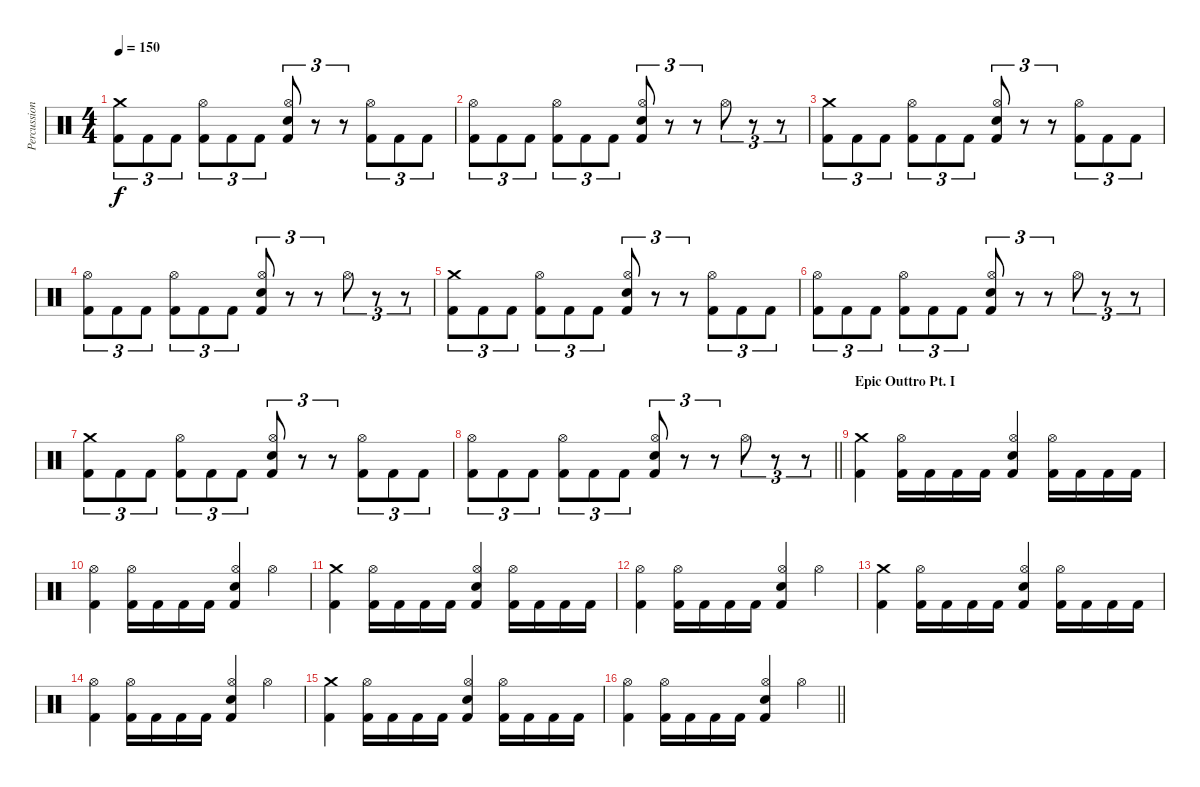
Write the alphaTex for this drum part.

\track ("Percussion" "Percussion") {instrument percussion}
\staff {score}
\articulation defaults
\ts (4 4)
\tempo 150
\clef neutral
\ks c
("Crash medium (hit)" "Kick (hit) 2").8{tu (3 2) dy f} "Kick (hit) 2".8{tu (3 2)} "Kick (hit) 2".8{tu (3 2)} ("Hi-Hat (open)" "Kick (hit) 2").8{tu (3 2)} "Kick (hit) 2".8{tu (3 2)} "Kick (hit) 2".8{tu (3 2)} ("Hi-Hat (open)" "Electric Snare (hit)" "Kick (hit) 2").8{tu (3 2)} r.8{tu (3 2)} r.8{tu (3 2)} ("Hi-Hat (open)" "Kick (hit) 2").8{tu (3 2)} "Kick (hit) 2".8{tu (3 2)} "Kick (hit) 2".8{tu (3 2)} |
("Hi-Hat (open)" "Kick (hit) 2").8{tu (3 2)} "Kick (hit) 2".8{tu (3 2)} "Kick (hit) 2".8{tu (3 2)} ("Hi-Hat (open)" "Kick (hit) 2").8{tu (3 2)} "Kick (hit) 2".8{tu (3 2)} "Kick (hit) 2".8{tu (3 2)} ("Hi-Hat (open)" "Electric Snare (hit)" "Kick (hit) 2").8{tu (3 2)} r.8{tu (3 2)} r.8{tu (3 2)} "Hi-Hat (open)".8{tu (3 2)} r.8{tu (3 2)} r.8{tu (3 2)} |
("Crash medium (hit)" "Kick (hit) 2").8{tu (3 2)} "Kick (hit) 2".8{tu (3 2)} "Kick (hit) 2".8{tu (3 2)} ("Hi-Hat (open)" "Kick (hit) 2").8{tu (3 2)} "Kick (hit) 2".8{tu (3 2)} "Kick (hit) 2".8{tu (3 2)} ("Hi-Hat (open)" "Electric Snare (hit)" "Kick (hit) 2").8{tu (3 2)} r.8{tu (3 2)} r.8{tu (3 2)} ("Hi-Hat (open)" "Kick (hit) 2").8{tu (3 2)} "Kick (hit) 2".8{tu (3 2)} "Kick (hit) 2".8{tu (3 2)} |
("Hi-Hat (open)" "Kick (hit) 2").8{tu (3 2)} "Kick (hit) 2".8{tu (3 2)} "Kick (hit) 2".8{tu (3 2)} ("Hi-Hat (open)" "Kick (hit) 2").8{tu (3 2)} "Kick (hit) 2".8{tu (3 2)} "Kick (hit) 2".8{tu (3 2)} ("Hi-Hat (open)" "Electric Snare (hit)" "Kick (hit) 2").8{tu (3 2)} r.8{tu (3 2)} r.8{tu (3 2)} "Hi-Hat (open)".8{tu (3 2)} r.8{tu (3 2)} r.8{tu (3 2)} |
("Crash medium (hit)" "Kick (hit) 2").8{tu (3 2)} "Kick (hit) 2".8{tu (3 2)} "Kick (hit) 2".8{tu (3 2)} ("Hi-Hat (open)" "Kick (hit) 2").8{tu (3 2)} "Kick (hit) 2".8{tu (3 2)} "Kick (hit) 2".8{tu (3 2)} ("Hi-Hat (open)" "Electric Snare (hit)" "Kick (hit) 2").8{tu (3 2)} r.8{tu (3 2)} r.8{tu (3 2)} ("Hi-Hat (open)" "Kick (hit) 2").8{tu (3 2)} "Kick (hit) 2".8{tu (3 2)} "Kick (hit) 2".8{tu (3 2)} |
("Hi-Hat (open)" "Kick (hit) 2").8{tu (3 2)} "Kick (hit) 2".8{tu (3 2)} "Kick (hit) 2".8{tu (3 2)} ("Hi-Hat (open)" "Kick (hit) 2").8{tu (3 2)} "Kick (hit) 2".8{tu (3 2)} "Kick (hit) 2".8{tu (3 2)} ("Hi-Hat (open)" "Electric Snare (hit)" "Kick (hit) 2").8{tu (3 2)} r.8{tu (3 2)} r.8{tu (3 2)} "Hi-Hat (open)".8{tu (3 2)} r.8{tu (3 2)} r.8{tu (3 2)} |
("Crash medium (hit)" "Kick (hit) 2").8{tu (3 2)} "Kick (hit) 2".8{tu (3 2)} "Kick (hit) 2".8{tu (3 2)} ("Hi-Hat (open)" "Kick (hit) 2").8{tu (3 2)} "Kick (hit) 2".8{tu (3 2)} "Kick (hit) 2".8{tu (3 2)} ("Hi-Hat (open)" "Electric Snare (hit)" "Kick (hit) 2").8{tu (3 2)} r.8{tu (3 2)} r.8{tu (3 2)} ("Hi-Hat (open)" "Kick (hit) 2").8{tu (3 2)} "Kick (hit) 2".8{tu (3 2)} "Kick (hit) 2".8{tu (3 2)} |
\barLineRight lightlight
("Hi-Hat (open)" "Kick (hit) 2").8{tu (3 2)} "Kick (hit) 2".8{tu (3 2)} "Kick (hit) 2".8{tu (3 2)} ("Hi-Hat (open)" "Kick (hit) 2").8{tu (3 2)} "Kick (hit) 2".8{tu (3 2)} "Kick (hit) 2".8{tu (3 2)} ("Hi-Hat (open)" "Electric Snare (hit)" "Kick (hit) 2").8{tu (3 2)} r.8{tu (3 2)} r.8{tu (3 2)} "Hi-Hat (open)".8{tu (3 2)} r.8{tu (3 2)} r.8{tu (3 2)} |
\section ("" "Epic Outtro Pt. I")
("Crash medium (hit)" "Kick (hit) 2").4 ("Hi-Hat (open)" "Kick (hit) 2").16 "Kick (hit) 2".16 "Kick (hit) 2".16 "Kick (hit) 2".16 ("Hi-Hat (open)" "Electric Snare (hit)" "Kick (hit) 2").4 ("Hi-Hat (open)" "Kick (hit) 2").16 "Kick (hit) 2".16 "Kick (hit) 2".16 "Kick (hit) 2".16 |
("Hi-Hat (open)" "Kick (hit) 2").4 ("Hi-Hat (open)" "Kick (hit) 2").16 "Kick (hit) 2".16 "Kick (hit) 2".16 "Kick (hit) 2".16 ("Hi-Hat (open)" "Electric Snare (hit)" "Kick (hit) 2").4 "Hi-Hat (open)".4 |
("Crash medium (hit)" "Kick (hit) 2").4 ("Hi-Hat (open)" "Kick (hit) 2").16 "Kick (hit) 2".16 "Kick (hit) 2".16 "Kick (hit) 2".16 ("Hi-Hat (open)" "Electric Snare (hit)" "Kick (hit) 2").4 ("Hi-Hat (open)" "Kick (hit) 2").16 "Kick (hit) 2".16 "Kick (hit) 2".16 "Kick (hit) 2".16 |
("Hi-Hat (open)" "Kick (hit) 2").4 ("Hi-Hat (open)" "Kick (hit) 2").16 "Kick (hit) 2".16 "Kick (hit) 2".16 "Kick (hit) 2".16 ("Hi-Hat (open)" "Electric Snare (hit)" "Kick (hit) 2").4 "Hi-Hat (open)".4 |
("Crash medium (hit)" "Kick (hit) 2").4 ("Hi-Hat (open)" "Kick (hit) 2").16 "Kick (hit) 2".16 "Kick (hit) 2".16 "Kick (hit) 2".16 ("Hi-Hat (open)" "Electric Snare (hit)" "Kick (hit) 2").4 ("Hi-Hat (open)" "Kick (hit) 2").16 "Kick (hit) 2".16 "Kick (hit) 2".16 "Kick (hit) 2".16 |
("Hi-Hat (open)" "Kick (hit) 2").4 ("Hi-Hat (open)" "Kick (hit) 2").16 "Kick (hit) 2".16 "Kick (hit) 2".16 "Kick (hit) 2".16 ("Hi-Hat (open)" "Electric Snare (hit)" "Kick (hit) 2").4 "Hi-Hat (open)".4 |
("Crash medium (hit)" "Kick (hit) 2").4 ("Hi-Hat (open)" "Kick (hit) 2").16 "Kick (hit) 2".16 "Kick (hit) 2".16 "Kick (hit) 2".16 ("Hi-Hat (open)" "Electric Snare (hit)" "Kick (hit) 2").4 ("Hi-Hat (open)" "Kick (hit) 2").16 "Kick (hit) 2".16 "Kick (hit) 2".16 "Kick (hit) 2".16 |
\barLineRight lightlight
("Hi-Hat (open)" "Kick (hit) 2").4 ("Hi-Hat (open)" "Kick (hit) 2").16 "Kick (hit) 2".16 "Kick (hit) 2".16 "Kick (hit) 2".16 ("Hi-Hat (open)" "Electric Snare (hit)" "Kick (hit) 2").4 "Hi-Hat (open)".4
